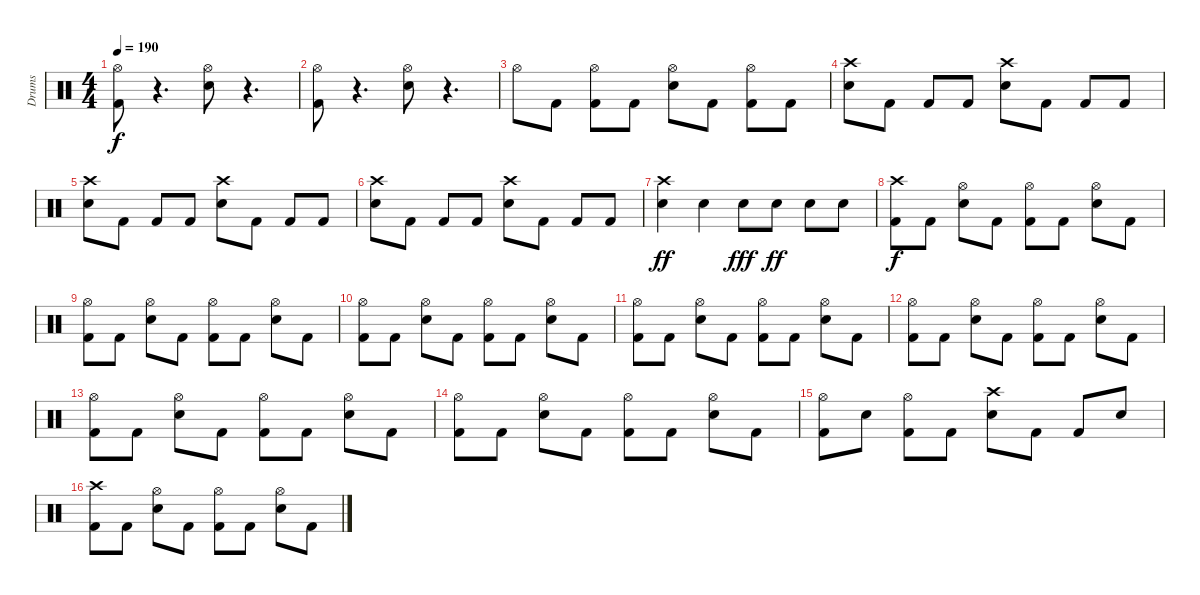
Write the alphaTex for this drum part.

\track ("Drums" "Drums") {instrument percussion}
\staff {score}
\articulation defaults
\ts (4 4)
\tempo 190
\clef neutral
\ks c
("Kick (hit) 2" "Hi-Hat (open)").8{dy f} r.4{d} ("Snare (hit) 2" "Hi-Hat (open)").8 r.4{d} |
("Kick (hit) 2" "Hi-Hat (open)").8 r.4{d} ("Snare (hit) 2" "Hi-Hat (open)").8 r.4{d} |
"Hi-Hat (open)".8 "Kick (hit) 2".8 ("Kick (hit) 2" "Hi-Hat (open)").8 "Kick (hit) 2".8 ("Snare (hit) 2" "Hi-Hat (open)").8 "Kick (hit) 2".8 ("Kick (hit) 2" "Hi-Hat (open)").8 "Kick (hit) 2".8 |
("Snare (hit) 2" "Crash high (hit)").8 "Kick (hit) 2".8 "Kick (hit) 2".8 "Kick (hit) 2".8 ("Snare (hit) 2" "Crash high (hit)").8 "Kick (hit) 2".8 "Kick (hit) 2".8 "Kick (hit) 2".8 |
("Snare (hit) 2" "Crash high (hit)").8 "Kick (hit) 2".8 "Kick (hit) 2".8 "Kick (hit) 2".8 ("Snare (hit) 2" "Crash high (hit)").8 "Kick (hit) 2".8 "Kick (hit) 2".8 "Kick (hit) 2".8 |
("Snare (hit) 2" "Crash high (hit)").8 "Kick (hit) 2".8 "Kick (hit) 2".8 "Kick (hit) 2".8 ("Snare (hit) 2" "Crash high (hit)").8 "Kick (hit) 2".8 "Kick (hit) 2".8 "Kick (hit) 2".8 |
("Snare (hit) 2" "Crash high (hit)").4{dy ff} "Snare (hit) 2".4 "Snare (hit) 2".8{dy fff} "Snare (hit) 2".8{dy ff} "Snare (hit) 2".8 "Snare (hit) 2".8 |
("Kick (hit) 2" "Crash high (hit)").8{dy f} "Kick (hit) 2".8 ("Snare (hit) 2" "Hi-Hat (open)").8 "Kick (hit) 2".8 ("Kick (hit) 2" "Hi-Hat (open)").8 "Kick (hit) 2".8 ("Snare (hit) 2" "Hi-Hat (open)").8 "Kick (hit) 2".8 |
("Kick (hit) 2" "Hi-Hat (open)").8 "Kick (hit) 2".8 ("Snare (hit) 2" "Hi-Hat (open)").8 "Kick (hit) 2".8 ("Kick (hit) 2" "Hi-Hat (open)").8 "Kick (hit) 2".8 ("Snare (hit) 2" "Hi-Hat (open)").8 "Kick (hit) 2".8 |
("Kick (hit) 2" "Hi-Hat (open)").8 "Kick (hit) 2".8 ("Snare (hit) 2" "Hi-Hat (open)").8 "Kick (hit) 2".8 ("Kick (hit) 2" "Hi-Hat (open)").8 "Kick (hit) 2".8 ("Snare (hit) 2" "Hi-Hat (open)").8 "Kick (hit) 2".8 |
("Kick (hit) 2" "Hi-Hat (open)").8 "Kick (hit) 2".8 ("Snare (hit) 2" "Hi-Hat (open)").8 "Kick (hit) 2".8 ("Kick (hit) 2" "Hi-Hat (open)").8 "Kick (hit) 2".8 ("Snare (hit) 2" "Hi-Hat (open)").8 "Kick (hit) 2".8 |
("Kick (hit) 2" "Hi-Hat (open)").8 "Kick (hit) 2".8 ("Snare (hit) 2" "Hi-Hat (open)").8 "Kick (hit) 2".8 ("Kick (hit) 2" "Hi-Hat (open)").8 "Kick (hit) 2".8 ("Snare (hit) 2" "Hi-Hat (open)").8 "Kick (hit) 2".8 |
("Kick (hit) 2" "Hi-Hat (open)").8 "Kick (hit) 2".8 ("Snare (hit) 2" "Hi-Hat (open)").8 "Kick (hit) 2".8 ("Kick (hit) 2" "Hi-Hat (open)").8 "Kick (hit) 2".8 ("Snare (hit) 2" "Hi-Hat (open)").8 "Kick (hit) 2".8 |
("Kick (hit) 2" "Hi-Hat (open)").8 "Kick (hit) 2".8 ("Snare (hit) 2" "Hi-Hat (open)").8 "Kick (hit) 2".8 ("Kick (hit) 2" "Hi-Hat (open)").8 "Kick (hit) 2".8 ("Snare (hit) 2" "Hi-Hat (open)").8 "Kick (hit) 2".8 |
("Kick (hit) 2" "Hi-Hat (open)").8 "Snare (hit) 2".8 ("Kick (hit) 2" "Hi-Hat (open)").8 "Kick (hit) 2".8 ("Snare (hit) 2" "Crash high (hit)").8 "Kick (hit) 2".8 "Kick (hit) 2".8 "Snare (hit) 2".8 |
("Kick (hit) 2" "Crash high (hit)").8 "Kick (hit) 2".8 ("Snare (hit) 2" "Hi-Hat (open)").8 "Kick (hit) 2".8 ("Kick (hit) 2" "Hi-Hat (open)").8 "Kick (hit) 2".8 ("Snare (hit) 2" "Hi-Hat (open)").8 "Kick (hit) 2".8
